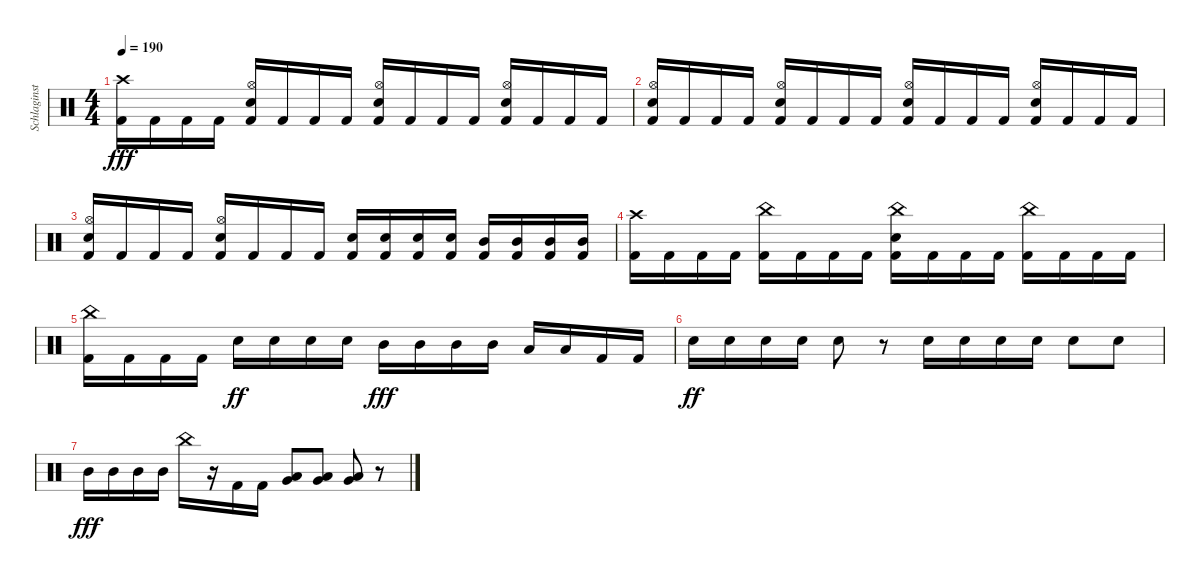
\track ("Schlaginstrumente - Auswahl" "Schlaginst") {instrument percussion}
\staff {score}
\articulation defaults
\ts (4 4)
\tempo 190
\clef neutral
\ks c
("Crash high (hit)" "Kick (hit) 2").16{dy fff} "Kick (hit) 2".16 "Kick (hit) 2".16 "Kick (hit) 2".16 ("Hi-Hat (open)" "Snare (hit) 2" "Kick (hit) 2").16 "Kick (hit) 2".16 "Kick (hit) 2".16 "Kick (hit) 2".16 ("Hi-Hat (open)" "Snare (hit) 2" "Kick (hit) 2").16 "Kick (hit) 2".16 "Kick (hit) 2".16 "Kick (hit) 2".16 ("Hi-Hat (open)" "Snare (hit) 2" "Kick (hit) 2").16 "Kick (hit) 2".16 "Kick (hit) 2".16 "Kick (hit) 2".16 |
("Hi-Hat (open)" "Snare (hit) 2" "Kick (hit) 2").16 "Kick (hit) 2".16 "Kick (hit) 2".16 "Kick (hit) 2".16 ("Hi-Hat (open)" "Snare (hit) 2" "Kick (hit) 2").16 "Kick (hit) 2".16 "Kick (hit) 2".16 "Kick (hit) 2".16 ("Hi-Hat (open)" "Snare (hit) 2" "Kick (hit) 2").16 "Kick (hit) 2".16 "Kick (hit) 2".16 "Kick (hit) 2".16 ("Hi-Hat (open)" "Snare (hit) 2" "Kick (hit) 2").16 "Kick (hit) 2".16 "Kick (hit) 2".16 "Kick (hit) 2".16 |
("Hi-Hat (open)" "Snare (hit) 2" "Kick (hit) 2").16 "Kick (hit) 2".16 "Kick (hit) 2".16 "Kick (hit) 2".16 ("Hi-Hat (open)" "Snare (hit) 2" "Kick (hit) 2").16 "Kick (hit) 2".16 "Kick (hit) 2".16 "Kick (hit) 2".16 ("Snare (hit) 2" "Kick (hit) 2").16 ("Snare (hit) 2" "Kick (hit) 2").16 ("Snare (hit) 2" "Kick (hit) 2").16 ("Snare (hit) 2" "Kick (hit) 2").16 ("Mid Tom (hit)" "Kick (hit) 2").16 ("Mid Tom (hit)" "Kick (hit) 2").16 ("Mid Tom (hit)" "Kick (hit) 2").16 ("Mid Tom (hit)" "Kick (hit) 2").16 |
("Crash high (hit)" "Kick (hit) 2").16 "Kick (hit) 2".16 "Kick (hit) 2".16 "Kick (hit) 2".16 ("China (hit)" "Kick (hit) 2").16 "Kick (hit) 2".16 "Kick (hit) 2".16 "Kick (hit) 2".16 ("China (hit)" "Snare (hit) 2" "Kick (hit) 2").16 "Kick (hit) 2".16 "Kick (hit) 2".16 "Kick (hit) 2".16 ("China (hit)" "Kick (hit) 2").16 "Kick (hit) 2".16 "Kick (hit) 2".16 "Kick (hit) 2".16 |
("China (hit)" "Kick (hit) 2").16 "Kick (hit) 2".16 "Kick (hit) 2".16 "Kick (hit) 2".16 "Snare (hit) 2".16{dy ff} "Snare (hit) 2".16 "Snare (hit) 2".16 "Snare (hit) 2".16 "Mid Tom (hit)".16{dy fff} "Mid Tom (hit)".16 "Mid Tom (hit)".16 "Mid Tom (hit)".16 "Low Tom (hit)".16 "Low Tom (hit)".16 "Kick (hit) 2".16 "Kick (hit) 2".16 |
"Snare (hit) 2".16{dy ff} "Snare (hit) 2".16 "Snare (hit) 2".16 "Snare (hit) 2".16 "Snare (hit) 2".8 r.8 "Snare (hit) 2".16 "Snare (hit) 2".16 "Snare (hit) 2".16 "Snare (hit) 2".16 "Snare (hit) 2".8 "Snare (hit) 2".8 |
"Mid Tom (hit)".16{dy fff} "Mid Tom (hit)".16 "Mid Tom (hit)".16 "Mid Tom (hit)".16 "China (hit)".16 r.16 "Kick (hit) 2".16 "Kick (hit) 2".16 ("Very Low Tom (hit)" "Low Floor Tom (hit)").8 ("Very Low Tom (hit)" "Low Floor Tom (hit)").8 ("Very Low Tom (hit)" "Low Floor Tom (hit)").8 r.8
